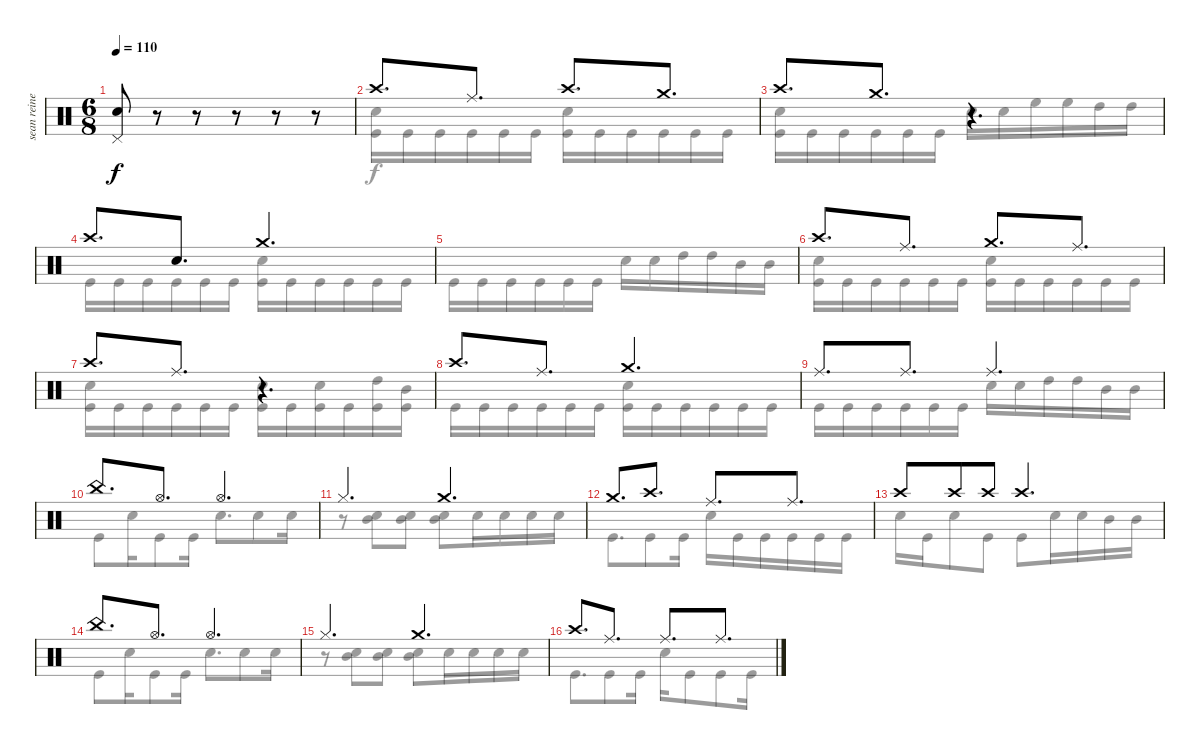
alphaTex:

\track ("sean reinert" "sean reine") {instrument percussion}
\staff {score}
\articulation defaults
\voice
\ts (6 8)
\tempo 110
\clef neutral
\ks c
("Pedal Hi-Hat (hit)" "Snare (hit) 2").8{dy f} r.8 r.8 r.8 r.8 r.8 |
"Crash high (hit)".8{d} "Ride (middle)".8{d} "Crash high (hit)".8{d} "Crash medium (hit)".8{d} |
"Crash high (hit)".8{d} "Crash medium (hit)".8{d} r.4{d} |
"Crash high (hit)".8{d} "Snare (hit)".8{d} "Crash medium (hit)".4{d} |
|
"Crash high (hit)".8{d} "Ride (middle)".8{d} "Crash medium (hit)".8{d} "Ride (middle)".8{d} |
"Crash high (hit)".8{d} "Ride (middle)".8{d} r.4{d} |
"Crash high (hit)".8{d} "Ride (middle)".8{d} "Crash medium (hit)".4{d} |
"Ride (middle)".8{d} "Ride (middle)".8{d} "Ride (middle)".4{d} |
"China (hit)".8{d} "Hi-Hat (open)".8{d} "Hi-Hat (open)".4{d} |
"Hi-Hat (closed)".4{d} "Crash medium (hit)".4{d} |
"Crash medium (hit)".8{d} "Crash high (hit)".8{d} "Ride (middle)".8{d} "Ride (middle)".8{d} |
"Crash high (hit)".8 "Crash high (hit)".8 "Crash high (hit)".8 "Crash high (hit)".4{d} |
"China (hit)".8{d} "Hi-Hat (open)".8{d} "Hi-Hat (open)".4{d} |
"Hi-Hat (closed)".4{d} "Crash medium (hit)".4{d} |
"Crash high (hit)".8{d} "Ride (middle)".8{d} "Ride (middle)".8{d} "Ride (middle)".8{d}
\voice
\clef neutral
\ottava regular
\simile none
\ks c
|
("Snare (hit) 2" "Kick (hit)").16 "Kick (hit)".16 "Kick (hit)".16 "Kick (hit)".16 "Kick (hit)".16 "Kick (hit)".16 ("Snare (hit) 2" "Kick (hit)").16 "Kick (hit)".16 "Kick (hit)".16 "Kick (hit)".16 "Kick (hit)".16 "Kick (hit)".16 |
("Snare (hit) 2" "Kick (hit)").16 "Kick (hit)".16 "Kick (hit)".16 "Kick (hit)".16 "Kick (hit)".16 "Kick (hit)".16 "Snare (hit) 2".16 "Snare (hit) 2".16 "High Floor Tom (hit)".16 "High Floor Tom (hit)".16 "High Tom (hit)".16 "High Tom (hit)".16 |
"Kick (hit)".16 "Kick (hit)".16 "Kick (hit)".16 "Kick (hit)".16 "Kick (hit)".16 "Kick (hit)".16 ("Snare (hit) 2" "Kick (hit)").16 "Kick (hit)".16 "Kick (hit)".16 "Kick (hit)".16 "Kick (hit)".16 "Kick (hit)".16 |
"Kick (hit)".16 "Kick (hit)".16 "Kick (hit)".16 "Kick (hit)".16 "Kick (hit)".16 "Kick (hit)".16 "Snare (hit) 2".16 "Snare (hit) 2".16 "High Tom (hit)".16 "High Tom (hit)".16 "Mid Tom (hit)".16 "Mid Tom (hit)".16 |
("Snare (hit) 2" "Kick (hit)").16 "Kick (hit)".16 "Kick (hit)".16 "Kick (hit)".16 "Kick (hit)".16 "Kick (hit)".16 ("Snare (hit) 2" "Kick (hit)").16 "Kick (hit)".16 "Kick (hit)".16 "Kick (hit)".16 "Kick (hit)".16 "Kick (hit)".16 |
("Snare (hit) 2" "Kick (hit)").16 "Kick (hit)".16 "Kick (hit)".16 "Kick (hit)".16 "Kick (hit)".16 "Kick (hit)".16 ("Snare (hit) 2" "Kick (hit)").16 "Kick (hit)".16 ("Snare (hit) 2" "Kick (hit)").16 "Kick (hit)".16 ("High Tom (hit)" "Kick (hit)").16 ("Mid Tom (hit)" "Kick (hit)").16 |
"Kick (hit)".16 "Kick (hit)".16 "Kick (hit)".16 "Kick (hit)".16 "Kick (hit)".16 "Kick (hit)".16 ("Snare (hit) 2" "Kick (hit)").16 "Kick (hit)".16 "Kick (hit)".16 "Kick (hit)".16 "Kick (hit)".16 "Kick (hit)".16 |
"Kick (hit)".16 "Kick (hit)".16 "Kick (hit)".16 "Kick (hit)".16 "Kick (hit)".16 "Kick (hit)".16 "Snare (hit) 2".16 "Snare (hit) 2".16 "High Tom (hit)".16 "High Tom (hit)".16 "Mid Tom (hit)".16 "Mid Tom (hit)".16 |
"Kick (hit)".8 "Snare (hit) 2".16 "Kick (hit)".8 "Kick (hit)".16 "Snare (hit) 2".8{d} "Snare (hit) 2".8 "Snare (hit) 2".16 |
r.8 ("Mid Tom (hit)" "Snare (hit) 2").8 ("Mid Tom (hit)" "Snare (hit) 2").8 ("Mid Tom (hit)" "Snare (hit) 2").8 "Snare (hit) 2".16 "Snare (hit) 2".16 "Snare (hit) 2".16 "Snare (hit) 2".16 |
"Kick (hit)".8{d} "Kick (hit)".8 "Kick (hit)".16 "Snare (hit) 2".16 "Kick (hit)".16 "Kick (hit)".16 "Kick (hit)".16 "Kick (hit)".16 "Kick (hit)".16 |
"Snare (hit) 2".16 "Kick (hit)".16 "Snare (hit) 2".8 "Kick (hit)".8 "Kick (hit)".8 "Snare (hit) 2".16 "Snare (hit) 2".16 "Mid Tom (hit)".16 "Mid Tom (hit)".16 |
"Kick (hit)".8 "Snare (hit) 2".16 "Kick (hit)".8 "Kick (hit)".16 "Snare (hit) 2".8{d} "Snare (hit) 2".8 "Snare (hit) 2".16 |
r.8 ("Mid Tom (hit)" "Snare (hit) 2").8 ("Mid Tom (hit)" "Snare (hit) 2").8 ("Mid Tom (hit)" "Snare (hit) 2").8 "Snare (hit) 2".16 "Snare (hit) 2".16 "Snare (hit) 2".16 "Snare (hit) 2".16 |
"Kick (hit)".8{d} "Kick (hit)".8 "Kick (hit)".16 "Snare (hit) 2".16 "Kick (hit)".8 "Kick (hit)".8 "Kick (hit)".16
